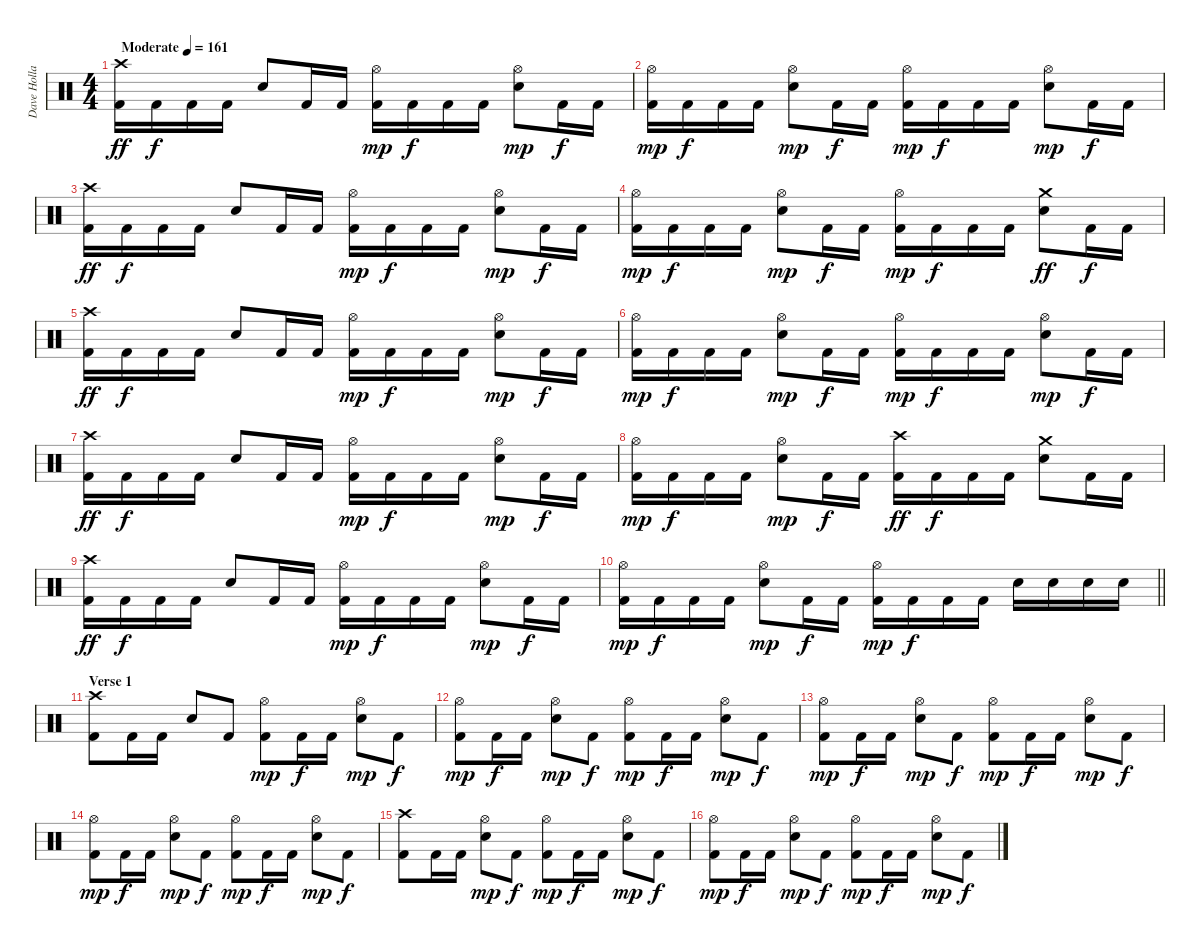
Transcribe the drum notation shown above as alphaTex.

\track ("Dave Holland" "Dave Holla") {instrument percussion}
\staff {score}
\articulation defaults
\ts (4 4)
\tempo (161 "Moderate")
\clef neutral
\ks c
("Kick (hit) 2" "Crash high (hit)").16{dy ff} "Kick (hit) 2".16{dy f} "Kick (hit) 2".16 "Kick (hit) 2".16 "Snare (hit) 2".8 "Kick (hit) 2".16 "Kick (hit) 2".16 ("Kick (hit) 2" "Hi-Hat (open)").16{dy mp} "Kick (hit) 2".16{dy f} "Kick (hit) 2".16 "Kick (hit) 2".16 ("Hi-Hat (open)" "Snare (hit) 2").8{dy mp} "Kick (hit) 2".16{dy f} "Kick (hit) 2".16 |
("Kick (hit) 2" "Hi-Hat (open)").16{dy mp} "Kick (hit) 2".16{dy f} "Kick (hit) 2".16 "Kick (hit) 2".16 ("Hi-Hat (open)" "Snare (hit) 2").8{dy mp} "Kick (hit) 2".16{dy f} "Kick (hit) 2".16 ("Kick (hit) 2" "Hi-Hat (open)").16{dy mp} "Kick (hit) 2".16{dy f} "Kick (hit) 2".16 "Kick (hit) 2".16 ("Hi-Hat (open)" "Snare (hit) 2").8{dy mp} "Kick (hit) 2".16{dy f} "Kick (hit) 2".16 |
("Kick (hit) 2" "Crash high (hit)").16{dy ff} "Kick (hit) 2".16{dy f} "Kick (hit) 2".16 "Kick (hit) 2".16 "Snare (hit) 2".8 "Kick (hit) 2".16 "Kick (hit) 2".16 ("Kick (hit) 2" "Hi-Hat (open)").16{dy mp} "Kick (hit) 2".16{dy f} "Kick (hit) 2".16 "Kick (hit) 2".16 ("Hi-Hat (open)" "Snare (hit) 2").8{dy mp} "Kick (hit) 2".16{dy f} "Kick (hit) 2".16 |
("Kick (hit) 2" "Hi-Hat (open)").16{dy mp} "Kick (hit) 2".16{dy f} "Kick (hit) 2".16 "Kick (hit) 2".16 ("Hi-Hat (open)" "Snare (hit) 2").8{dy mp} "Kick (hit) 2".16{dy f} "Kick (hit) 2".16 ("Kick (hit) 2" "Hi-Hat (open)").16{dy mp} "Kick (hit) 2".16{dy f} "Kick (hit) 2".16 "Kick (hit) 2".16 ("Crash medium (hit)" "Snare (hit) 2").8{dy ff} "Kick (hit) 2".16{dy f} "Kick (hit) 2".16 |
("Kick (hit) 2" "Crash high (hit)").16{dy ff} "Kick (hit) 2".16{dy f} "Kick (hit) 2".16 "Kick (hit) 2".16 "Snare (hit) 2".8 "Kick (hit) 2".16 "Kick (hit) 2".16 ("Kick (hit) 2" "Hi-Hat (open)").16{dy mp} "Kick (hit) 2".16{dy f} "Kick (hit) 2".16 "Kick (hit) 2".16 ("Hi-Hat (open)" "Snare (hit) 2").8{dy mp} "Kick (hit) 2".16{dy f} "Kick (hit) 2".16 |
("Kick (hit) 2" "Hi-Hat (open)").16{dy mp} "Kick (hit) 2".16{dy f} "Kick (hit) 2".16 "Kick (hit) 2".16 ("Hi-Hat (open)" "Snare (hit) 2").8{dy mp} "Kick (hit) 2".16{dy f} "Kick (hit) 2".16 ("Kick (hit) 2" "Hi-Hat (open)").16{dy mp} "Kick (hit) 2".16{dy f} "Kick (hit) 2".16 "Kick (hit) 2".16 ("Hi-Hat (open)" "Snare (hit) 2").8{dy mp} "Kick (hit) 2".16{dy f} "Kick (hit) 2".16 |
("Kick (hit) 2" "Crash high (hit)").16{dy ff} "Kick (hit) 2".16{dy f} "Kick (hit) 2".16 "Kick (hit) 2".16 "Snare (hit) 2".8 "Kick (hit) 2".16 "Kick (hit) 2".16 ("Kick (hit) 2" "Hi-Hat (open)").16{dy mp} "Kick (hit) 2".16{dy f} "Kick (hit) 2".16 "Kick (hit) 2".16 ("Hi-Hat (open)" "Snare (hit) 2").8{dy mp} "Kick (hit) 2".16{dy f} "Kick (hit) 2".16 |
("Kick (hit) 2" "Hi-Hat (open)").16{dy mp} "Kick (hit) 2".16{dy f} "Kick (hit) 2".16 "Kick (hit) 2".16 ("Hi-Hat (open)" "Snare (hit) 2").8{dy mp} "Kick (hit) 2".16{dy f} "Kick (hit) 2".16 ("Kick (hit) 2" "Crash high (hit)").16{dy ff} "Kick (hit) 2".16{dy f} "Kick (hit) 2".16 "Kick (hit) 2".16 ("Crash medium (hit)" "Snare (hit) 2").8 "Kick (hit) 2".16 "Kick (hit) 2".16 |
("Kick (hit) 2" "Crash high (hit)").16{dy ff} "Kick (hit) 2".16{dy f} "Kick (hit) 2".16 "Kick (hit) 2".16 "Snare (hit) 2".8 "Kick (hit) 2".16 "Kick (hit) 2".16 ("Kick (hit) 2" "Hi-Hat (open)").16{dy mp} "Kick (hit) 2".16{dy f} "Kick (hit) 2".16 "Kick (hit) 2".16 ("Hi-Hat (open)" "Snare (hit) 2").8{dy mp} "Kick (hit) 2".16{dy f} "Kick (hit) 2".16 |
\barLineRight lightlight
("Kick (hit) 2" "Hi-Hat (open)").16{dy mp} "Kick (hit) 2".16{dy f} "Kick (hit) 2".16 "Kick (hit) 2".16 ("Hi-Hat (open)" "Snare (hit) 2").8{dy mp} "Kick (hit) 2".16{dy f} "Kick (hit) 2".16 ("Kick (hit) 2" "Hi-Hat (open)").16{dy mp} "Kick (hit) 2".16{dy f} "Kick (hit) 2".16 "Kick (hit) 2".16 "Snare (hit) 2".16 "Snare (hit) 2".16 "Snare (hit) 2".16 "Snare (hit) 2".16 |
\section ("" "Verse 1")
("Kick (hit) 2" "Crash high (hit)").8 "Kick (hit) 2".16 "Kick (hit) 2".16 "Snare (hit) 2".8 "Kick (hit) 2".8 ("Kick (hit) 2" "Hi-Hat (open)").8{dy mp} "Kick (hit) 2".16{dy f} "Kick (hit) 2".16 ("Hi-Hat (open)" "Snare (hit) 2").8{dy mp} "Kick (hit) 2".8{dy f} |
("Kick (hit) 2" "Hi-Hat (open)").8{dy mp} "Kick (hit) 2".16{dy f} "Kick (hit) 2".16 ("Hi-Hat (open)" "Snare (hit) 2").8{dy mp} "Kick (hit) 2".8{dy f} ("Kick (hit) 2" "Hi-Hat (open)").8{dy mp} "Kick (hit) 2".16{dy f} "Kick (hit) 2".16 ("Hi-Hat (open)" "Snare (hit) 2").8{dy mp} "Kick (hit) 2".8{dy f} |
("Kick (hit) 2" "Hi-Hat (open)").8{dy mp} "Kick (hit) 2".16{dy f} "Kick (hit) 2".16 ("Hi-Hat (open)" "Snare (hit) 2").8{dy mp} "Kick (hit) 2".8{dy f} ("Kick (hit) 2" "Hi-Hat (open)").8{dy mp} "Kick (hit) 2".16{dy f} "Kick (hit) 2".16 ("Hi-Hat (open)" "Snare (hit) 2").8{dy mp} "Kick (hit) 2".8{dy f} |
("Kick (hit) 2" "Hi-Hat (open)").8{dy mp} "Kick (hit) 2".16{dy f} "Kick (hit) 2".16 ("Hi-Hat (open)" "Snare (hit) 2").8{dy mp} "Kick (hit) 2".8{dy f} ("Kick (hit) 2" "Hi-Hat (open)").8{dy mp} "Kick (hit) 2".16{dy f} "Kick (hit) 2".16 ("Hi-Hat (open)" "Snare (hit) 2").8{dy mp} "Kick (hit) 2".8{dy f} |
("Kick (hit) 2" "Crash high (hit)").8 "Kick (hit) 2".16 "Kick (hit) 2".16 ("Hi-Hat (open)" "Snare (hit) 2").8{dy mp} "Kick (hit) 2".8{dy f} ("Kick (hit) 2" "Hi-Hat (open)").8{dy mp} "Kick (hit) 2".16{dy f} "Kick (hit) 2".16 ("Hi-Hat (open)" "Snare (hit) 2").8{dy mp} "Kick (hit) 2".8{dy f} |
("Kick (hit) 2" "Hi-Hat (open)").8{dy mp} "Kick (hit) 2".16{dy f} "Kick (hit) 2".16 ("Hi-Hat (open)" "Snare (hit) 2").8{dy mp} "Kick (hit) 2".8{dy f} ("Kick (hit) 2" "Hi-Hat (open)").8{dy mp} "Kick (hit) 2".16{dy f} "Kick (hit) 2".16 ("Hi-Hat (open)" "Snare (hit) 2").8{dy mp} "Kick (hit) 2".8{dy f}
